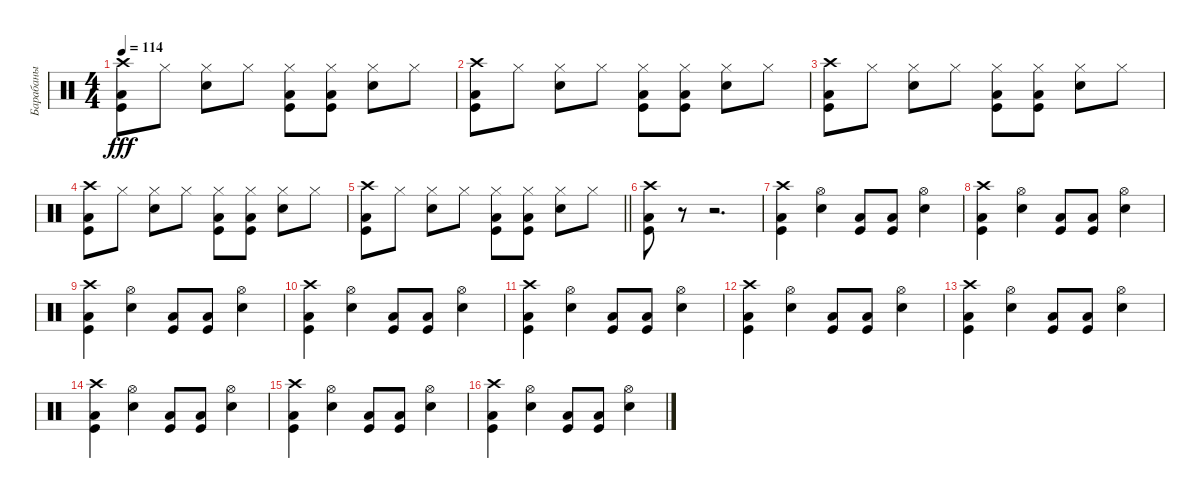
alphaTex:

\track ("Барабаны" "Барабаны") {instrument percussion}
\staff {score}
\articulation defaults
\ts (4 4)
\tempo 114
\clef neutral
\ks c
("Low Floor Tom (hit)" "Kick (hit)" "Crash high (hit)").8{dy fff} "Hi-Hat (closed)".8 ("Electric Snare (hit)" "Hi-Hat (closed)").8 "Hi-Hat (closed)".8 ("Low Floor Tom (hit)" "Kick (hit)" "Hi-Hat (closed)").8 ("Low Floor Tom (hit)" "Kick (hit)" "Hi-Hat (closed)").8 ("Electric Snare (hit)" "Hi-Hat (closed)").8 "Hi-Hat (closed)".8 |
("Low Floor Tom (hit)" "Kick (hit)" "Crash high (hit)").8 "Hi-Hat (closed)".8 ("Electric Snare (hit)" "Hi-Hat (closed)").8 "Hi-Hat (closed)".8 ("Low Floor Tom (hit)" "Kick (hit)" "Hi-Hat (closed)").8 ("Low Floor Tom (hit)" "Kick (hit)" "Hi-Hat (closed)").8 ("Electric Snare (hit)" "Hi-Hat (closed)").8 "Hi-Hat (closed)".8 |
("Low Floor Tom (hit)" "Kick (hit)" "Crash high (hit)").8 "Hi-Hat (closed)".8 ("Electric Snare (hit)" "Hi-Hat (closed)").8 "Hi-Hat (closed)".8 ("Low Floor Tom (hit)" "Kick (hit)" "Hi-Hat (closed)").8 ("Low Floor Tom (hit)" "Kick (hit)" "Hi-Hat (closed)").8 ("Electric Snare (hit)" "Hi-Hat (closed)").8 "Hi-Hat (closed)".8 |
("Low Floor Tom (hit)" "Kick (hit)" "Crash high (hit)").8 "Hi-Hat (closed)".8 ("Electric Snare (hit)" "Hi-Hat (closed)").8 "Hi-Hat (closed)".8 ("Low Floor Tom (hit)" "Kick (hit)" "Hi-Hat (closed)").8 ("Low Floor Tom (hit)" "Kick (hit)" "Hi-Hat (closed)").8 ("Electric Snare (hit)" "Hi-Hat (closed)").8 "Hi-Hat (closed)".8 |
\barLineRight lightlight
("Low Floor Tom (hit)" "Kick (hit)" "Crash high (hit)").8 "Hi-Hat (closed)".8 ("Electric Snare (hit)" "Hi-Hat (closed)").8 "Hi-Hat (closed)".8 ("Low Floor Tom (hit)" "Kick (hit)" "Hi-Hat (closed)").8 ("Low Floor Tom (hit)" "Kick (hit)" "Hi-Hat (closed)").8 ("Electric Snare (hit)" "Hi-Hat (closed)").8 "Hi-Hat (closed)".8 |
("Low Floor Tom (hit)" "Kick (hit)" "Crash high (hit)").8 r.8 r.2{d} |
("Low Floor Tom (hit)" "Kick (hit)" "Crash high (hit)").4 ("Electric Snare (hit)" "Hi-Hat (open)").4 ("Low Floor Tom (hit)" "Kick (hit)").8 ("Low Floor Tom (hit)" "Kick (hit)").8 ("Electric Snare (hit)" "Hi-Hat (open)").4 |
("Low Floor Tom (hit)" "Kick (hit)" "Crash high (hit)").4 ("Electric Snare (hit)" "Hi-Hat (open)").4 ("Low Floor Tom (hit)" "Kick (hit)").8 ("Low Floor Tom (hit)" "Kick (hit)").8 ("Electric Snare (hit)" "Hi-Hat (open)").4 |
("Low Floor Tom (hit)" "Kick (hit)" "Crash high (hit)").4 ("Electric Snare (hit)" "Hi-Hat (open)").4 ("Low Floor Tom (hit)" "Kick (hit)").8 ("Low Floor Tom (hit)" "Kick (hit)").8 ("Electric Snare (hit)" "Hi-Hat (open)").4 |
("Low Floor Tom (hit)" "Kick (hit)" "Crash high (hit)").4 ("Electric Snare (hit)" "Hi-Hat (open)").4 ("Low Floor Tom (hit)" "Kick (hit)").8 ("Low Floor Tom (hit)" "Kick (hit)").8 ("Electric Snare (hit)" "Hi-Hat (open)").4 |
("Low Floor Tom (hit)" "Kick (hit)" "Crash high (hit)").4 ("Electric Snare (hit)" "Hi-Hat (open)").4 ("Low Floor Tom (hit)" "Kick (hit)").8 ("Low Floor Tom (hit)" "Kick (hit)").8 ("Electric Snare (hit)" "Hi-Hat (open)").4 |
("Low Floor Tom (hit)" "Kick (hit)" "Crash high (hit)").4 ("Electric Snare (hit)" "Hi-Hat (open)").4 ("Low Floor Tom (hit)" "Kick (hit)").8 ("Low Floor Tom (hit)" "Kick (hit)").8 ("Electric Snare (hit)" "Hi-Hat (open)").4 |
("Low Floor Tom (hit)" "Kick (hit)" "Crash high (hit)").4 ("Electric Snare (hit)" "Hi-Hat (open)").4 ("Low Floor Tom (hit)" "Kick (hit)").8 ("Low Floor Tom (hit)" "Kick (hit)").8 ("Electric Snare (hit)" "Hi-Hat (open)").4 |
("Low Floor Tom (hit)" "Kick (hit)" "Crash high (hit)").4 ("Electric Snare (hit)" "Hi-Hat (open)").4 ("Low Floor Tom (hit)" "Kick (hit)").8 ("Low Floor Tom (hit)" "Kick (hit)").8 ("Electric Snare (hit)" "Hi-Hat (open)").4 |
("Low Floor Tom (hit)" "Kick (hit)" "Crash high (hit)").4 ("Electric Snare (hit)" "Hi-Hat (open)").4 ("Low Floor Tom (hit)" "Kick (hit)").8 ("Low Floor Tom (hit)" "Kick (hit)").8 ("Electric Snare (hit)" "Hi-Hat (open)").4 |
("Low Floor Tom (hit)" "Kick (hit)" "Crash high (hit)").4 ("Electric Snare (hit)" "Hi-Hat (open)").4 ("Low Floor Tom (hit)" "Kick (hit)").8 ("Low Floor Tom (hit)" "Kick (hit)").8 ("Electric Snare (hit)" "Hi-Hat (open)").4
